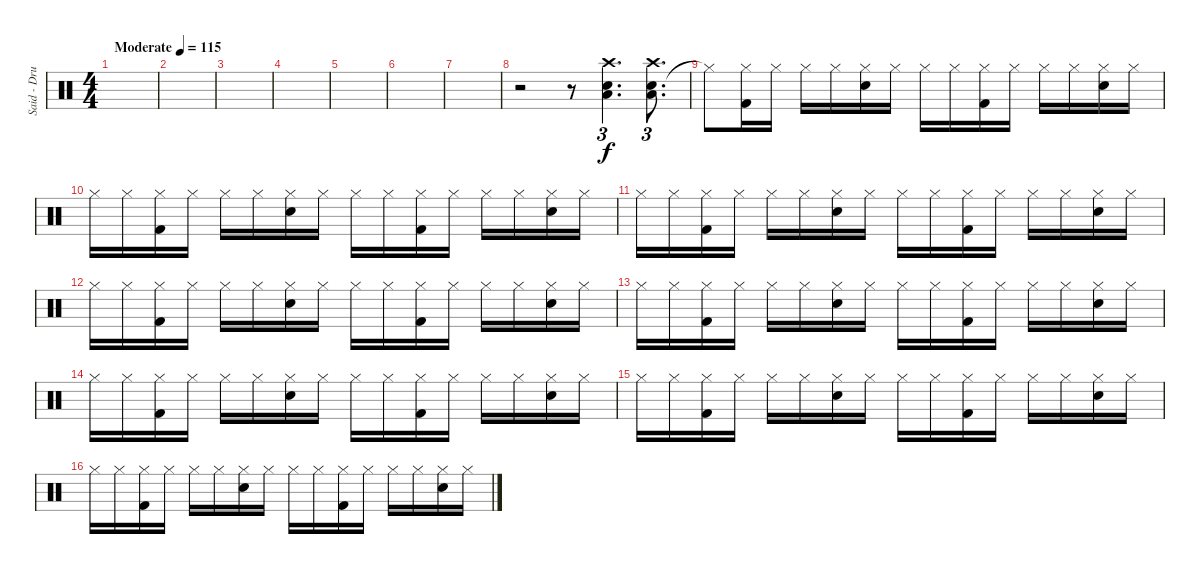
\track ("Said - Drums" "Said - Dru") {instrument percussion}
\staff {score}
\articulation defaults
\ts (4 4)
\tempo (115 "Moderate")
\clef neutral
\ks c
|
|
|
|
|
|
|
r.2 r.8 ("Snare (hit) 2" "Low Floor Tom (hit)" "Crash high (hit)").4{d tu (3 2)} ("Snare (hit) 2" "Low Floor Tom (hit)" "Crash high (hit)").8{d tu (3 2)} |
"Hi-Hat (closed)"{t}.8 ("Hi-Hat (closed)" "Kick (hit) 2").16 "Hi-Hat (closed)".16 "Hi-Hat (closed)".16 "Hi-Hat (closed)".16 ("Hi-Hat (closed)" "Snare (hit) 2").16 "Hi-Hat (closed)".16 "Hi-Hat (closed)".16 "Hi-Hat (closed)".16 ("Hi-Hat (closed)" "Kick (hit) 2").16 "Hi-Hat (closed)".16 "Hi-Hat (closed)".16 "Hi-Hat (closed)".16 ("Hi-Hat (closed)" "Snare (hit) 2").16 "Hi-Hat (closed)".16 |
"Hi-Hat (closed)".16 "Hi-Hat (closed)".16 ("Hi-Hat (closed)" "Kick (hit) 2").16 "Hi-Hat (closed)".16 "Hi-Hat (closed)".16 "Hi-Hat (closed)".16 ("Hi-Hat (closed)" "Snare (hit) 2").16 "Hi-Hat (closed)".16 "Hi-Hat (closed)".16 "Hi-Hat (closed)".16 ("Hi-Hat (closed)" "Kick (hit) 2").16 "Hi-Hat (closed)".16 "Hi-Hat (closed)".16 "Hi-Hat (closed)".16 ("Hi-Hat (closed)" "Snare (hit) 2").16 "Hi-Hat (closed)".16 |
"Hi-Hat (closed)".16 "Hi-Hat (closed)".16 ("Hi-Hat (closed)" "Kick (hit) 2").16 "Hi-Hat (closed)".16 "Hi-Hat (closed)".16 "Hi-Hat (closed)".16 ("Hi-Hat (closed)" "Snare (hit) 2").16 "Hi-Hat (closed)".16 "Hi-Hat (closed)".16 "Hi-Hat (closed)".16 ("Hi-Hat (closed)" "Kick (hit) 2").16 "Hi-Hat (closed)".16 "Hi-Hat (closed)".16 "Hi-Hat (closed)".16 ("Hi-Hat (closed)" "Snare (hit) 2").16 "Hi-Hat (closed)".16 |
"Hi-Hat (closed)".16 "Hi-Hat (closed)".16 ("Hi-Hat (closed)" "Kick (hit) 2").16 "Hi-Hat (closed)".16 "Hi-Hat (closed)".16 "Hi-Hat (closed)".16 ("Hi-Hat (closed)" "Snare (hit) 2").16 "Hi-Hat (closed)".16 "Hi-Hat (closed)".16 "Hi-Hat (closed)".16 ("Hi-Hat (closed)" "Kick (hit) 2").16 "Hi-Hat (closed)".16 "Hi-Hat (closed)".16 "Hi-Hat (closed)".16 ("Hi-Hat (closed)" "Snare (hit) 2").16 "Hi-Hat (closed)".16 |
"Hi-Hat (closed)".16 "Hi-Hat (closed)".16 ("Hi-Hat (closed)" "Kick (hit) 2").16 "Hi-Hat (closed)".16 "Hi-Hat (closed)".16 "Hi-Hat (closed)".16 ("Hi-Hat (closed)" "Snare (hit) 2").16 "Hi-Hat (closed)".16 "Hi-Hat (closed)".16 "Hi-Hat (closed)".16 ("Hi-Hat (closed)" "Kick (hit) 2").16 "Hi-Hat (closed)".16 "Hi-Hat (closed)".16 "Hi-Hat (closed)".16 ("Hi-Hat (closed)" "Snare (hit) 2").16 "Hi-Hat (closed)".16 |
"Hi-Hat (closed)".16 "Hi-Hat (closed)".16 ("Hi-Hat (closed)" "Kick (hit) 2").16 "Hi-Hat (closed)".16 "Hi-Hat (closed)".16 "Hi-Hat (closed)".16 ("Hi-Hat (closed)" "Snare (hit) 2").16 "Hi-Hat (closed)".16 "Hi-Hat (closed)".16 "Hi-Hat (closed)".16 ("Hi-Hat (closed)" "Kick (hit) 2").16 "Hi-Hat (closed)".16 "Hi-Hat (closed)".16 "Hi-Hat (closed)".16 ("Hi-Hat (closed)" "Snare (hit) 2").16 "Hi-Hat (closed)".16 |
"Hi-Hat (closed)".16 "Hi-Hat (closed)".16 ("Hi-Hat (closed)" "Kick (hit) 2").16 "Hi-Hat (closed)".16 "Hi-Hat (closed)".16 "Hi-Hat (closed)".16 ("Hi-Hat (closed)" "Snare (hit) 2").16 "Hi-Hat (closed)".16 "Hi-Hat (closed)".16 "Hi-Hat (closed)".16 ("Hi-Hat (closed)" "Kick (hit) 2").16 "Hi-Hat (closed)".16 "Hi-Hat (closed)".16 "Hi-Hat (closed)".16 ("Hi-Hat (closed)" "Snare (hit) 2").16 "Hi-Hat (closed)".16 |
"Hi-Hat (closed)".16 "Hi-Hat (closed)".16 ("Hi-Hat (closed)" "Kick (hit) 2").16 "Hi-Hat (closed)".16 "Hi-Hat (closed)".16 "Hi-Hat (closed)".16 ("Hi-Hat (closed)" "Snare (hit) 2").16 "Hi-Hat (closed)".16 "Hi-Hat (closed)".16 "Hi-Hat (closed)".16 ("Hi-Hat (closed)" "Kick (hit) 2").16 "Hi-Hat (closed)".16 "Hi-Hat (closed)".16 "Hi-Hat (closed)".16 ("Hi-Hat (closed)" "Snare (hit) 2").16 "Hi-Hat (closed)".16
